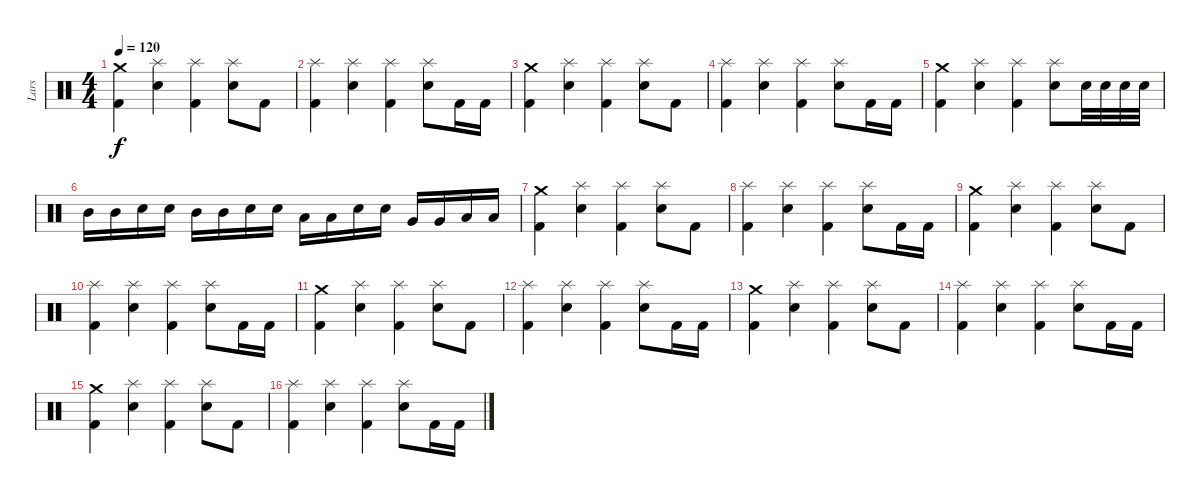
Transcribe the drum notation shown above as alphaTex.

\track ("Lars" "Lars") {instrument percussion}
\staff {score}
\articulation defaults
\ts (4 4)
\tempo 120
\clef neutral
\ks c
("Crash medium (hit)" "Kick (hit) 2").4{dy f} ("Splash (hit)" "Snare (hit) 2").4 ("Splash (hit)" "Kick (hit) 2").4 ("Splash (hit)" "Snare (hit) 2").8 "Kick (hit) 2".8 |
("Splash (hit)" "Kick (hit) 2").4 ("Splash (hit)" "Snare (hit) 2").4 ("Splash (hit)" "Kick (hit) 2").4 ("Splash (hit)" "Snare (hit) 2").8 "Kick (hit) 2".16 "Kick (hit) 2".16 |
("Crash medium (hit)" "Kick (hit) 2").4 ("Splash (hit)" "Snare (hit) 2").4 ("Splash (hit)" "Kick (hit) 2").4 ("Splash (hit)" "Snare (hit) 2").8 "Kick (hit) 2".8 |
("Splash (hit)" "Kick (hit) 2").4 ("Splash (hit)" "Snare (hit) 2").4 ("Splash (hit)" "Kick (hit) 2").4 ("Splash (hit)" "Snare (hit) 2").8 "Kick (hit) 2".16 "Kick (hit) 2".16 |
("Crash medium (hit)" "Kick (hit) 2").4 ("Splash (hit)" "Snare (hit) 2").4 ("Splash (hit)" "Kick (hit) 2").4 ("Splash (hit)" "Snare (hit) 2").8 "Snare (hit) 2".32 "Snare (hit) 2".32 "Snare (hit) 2".32 "Snare (hit) 2".32 |
"Mid Tom (hit)".16 "Mid Tom (hit)".16 "Snare (hit) 2".16 "Snare (hit) 2".16 "Mid Tom (hit)".16 "Mid Tom (hit)".16 "Snare (hit) 2".16 "Snare (hit) 2".16 "Low Tom (hit)".16 "Low Tom (hit)".16 "Snare (hit) 2".16 "Snare (hit) 2".16 "Very Low Tom (hit)".16 "Very Low Tom (hit)".16 "Low Floor Tom (hit)".16 "Low Floor Tom (hit)".16 |
("Crash medium (hit)" "Kick (hit) 2").4 ("Splash (hit)" "Snare (hit) 2").4 ("Splash (hit)" "Kick (hit) 2").4 ("Splash (hit)" "Snare (hit) 2").8 "Kick (hit) 2".8 |
("Splash (hit)" "Kick (hit) 2").4 ("Splash (hit)" "Snare (hit) 2").4 ("Splash (hit)" "Kick (hit) 2").4 ("Splash (hit)" "Snare (hit) 2").8 "Kick (hit) 2".16 "Kick (hit) 2".16 |
("Crash medium (hit)" "Kick (hit) 2").4 ("Splash (hit)" "Snare (hit) 2").4 ("Splash (hit)" "Kick (hit) 2").4 ("Splash (hit)" "Snare (hit) 2").8 "Kick (hit) 2".8 |
("Splash (hit)" "Kick (hit) 2").4 ("Splash (hit)" "Snare (hit) 2").4 ("Splash (hit)" "Kick (hit) 2").4 ("Splash (hit)" "Snare (hit) 2").8 "Kick (hit) 2".16 "Kick (hit) 2".16 |
("Crash medium (hit)" "Kick (hit) 2").4 ("Splash (hit)" "Snare (hit) 2").4 ("Splash (hit)" "Kick (hit) 2").4 ("Splash (hit)" "Snare (hit) 2").8 "Kick (hit) 2".8 |
("Splash (hit)" "Kick (hit) 2").4 ("Splash (hit)" "Snare (hit) 2").4 ("Splash (hit)" "Kick (hit) 2").4 ("Splash (hit)" "Snare (hit) 2").8 "Kick (hit) 2".16 "Kick (hit) 2".16 |
("Crash medium (hit)" "Kick (hit) 2").4 ("Splash (hit)" "Snare (hit) 2").4 ("Splash (hit)" "Kick (hit) 2").4 ("Splash (hit)" "Snare (hit) 2").8 "Kick (hit) 2".8 |
("Splash (hit)" "Kick (hit) 2").4 ("Splash (hit)" "Snare (hit) 2").4 ("Splash (hit)" "Kick (hit) 2").4 ("Splash (hit)" "Snare (hit) 2").8 "Kick (hit) 2".16 "Kick (hit) 2".16 |
("Crash medium (hit)" "Kick (hit) 2").4 ("Splash (hit)" "Snare (hit) 2").4 ("Splash (hit)" "Kick (hit) 2").4 ("Splash (hit)" "Snare (hit) 2").8 "Kick (hit) 2".8 |
("Splash (hit)" "Kick (hit) 2").4 ("Splash (hit)" "Snare (hit) 2").4 ("Splash (hit)" "Kick (hit) 2").4 ("Splash (hit)" "Snare (hit) 2").8 "Kick (hit) 2".16 "Kick (hit) 2".16
